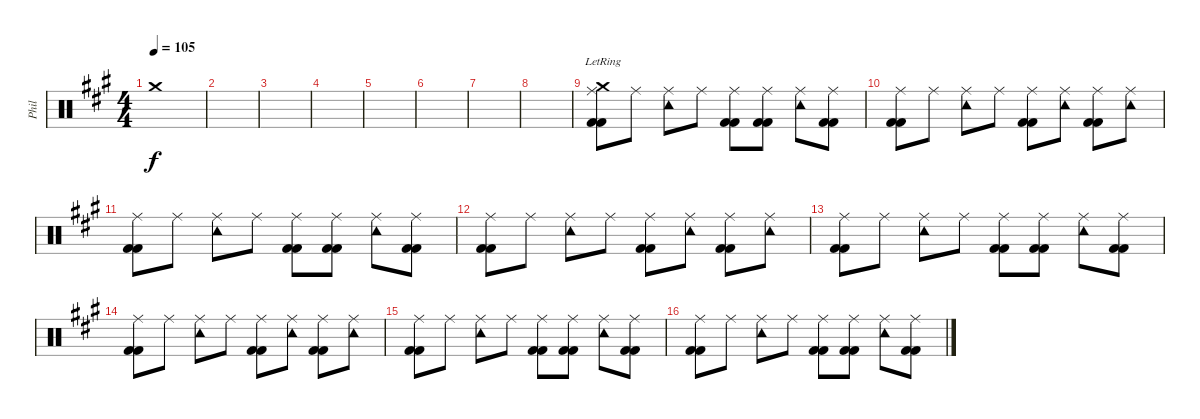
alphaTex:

\track ("Phil" "Phil") {instrument percussion}
\staff {score}
\articulation defaults
\ts (4 4)
\tempo 105
\clef neutral
\ks a "Crash medium (hit)".1{dy f}
|
|
|
|
|
|
|
|
("Kick (hit) 2" "Ride (middle)" "Kick (hit) 2" "Crash medium (hit)"{lr}).8 "Ride (middle)".8 ("Ride (middle)" "Tambourine (hit)").8 "Ride (middle)".8 ("Kick (hit) 2" "Ride (middle)" "Kick (hit) 2").8 ("Kick (hit) 2" "Ride (middle)" "Kick (hit) 2").8 ("Ride (middle)" "Tambourine (hit)").8 ("Kick (hit) 2" "Ride (middle)" "Kick (hit) 2").8 |
("Kick (hit) 2" "Ride (middle)" "Kick (hit) 2").8 "Ride (middle)".8 ("Ride (middle)" "Tambourine (hit)").8 "Ride (middle)".8 ("Kick (hit) 2" "Ride (middle)" "Kick (hit) 2").8 ("Ride (middle)" "Tambourine (hit)").8 ("Kick (hit) 2" "Ride (middle)" "Kick (hit) 2").8 ("Ride (middle)" "Tambourine (hit)").8 |
("Kick (hit) 2" "Ride (middle)" "Kick (hit) 2").8 "Ride (middle)".8 ("Ride (middle)" "Tambourine (hit)").8 "Ride (middle)".8 ("Kick (hit) 2" "Ride (middle)" "Kick (hit) 2").8 ("Kick (hit) 2" "Ride (middle)" "Kick (hit) 2").8 ("Ride (middle)" "Tambourine (hit)").8 ("Kick (hit) 2" "Ride (middle)" "Kick (hit) 2").8 |
("Kick (hit) 2" "Ride (middle)" "Kick (hit) 2").8 "Ride (middle)".8 ("Ride (middle)" "Tambourine (hit)").8 "Ride (middle)".8 ("Kick (hit) 2" "Ride (middle)" "Kick (hit) 2").8 ("Ride (middle)" "Tambourine (hit)").8 ("Kick (hit) 2" "Ride (middle)" "Kick (hit) 2").8 ("Ride (middle)" "Tambourine (hit)").8 |
("Kick (hit) 2" "Ride (middle)" "Kick (hit) 2").8 "Ride (middle)".8 ("Ride (middle)" "Tambourine (hit)").8 "Ride (middle)".8 ("Kick (hit) 2" "Ride (middle)" "Kick (hit) 2").8 ("Kick (hit) 2" "Ride (middle)" "Kick (hit) 2").8 ("Ride (middle)" "Tambourine (hit)").8 ("Kick (hit) 2" "Ride (middle)" "Kick (hit) 2").8 |
("Kick (hit) 2" "Ride (middle)" "Kick (hit) 2").8 "Ride (middle)".8 ("Ride (middle)" "Tambourine (hit)").8 "Ride (middle)".8 ("Kick (hit) 2" "Ride (middle)" "Kick (hit) 2").8 ("Ride (middle)" "Tambourine (hit)").8 ("Kick (hit) 2" "Ride (middle)" "Kick (hit) 2").8 ("Ride (middle)" "Tambourine (hit)").8 |
("Kick (hit) 2" "Ride (middle)" "Kick (hit) 2").8 "Ride (middle)".8 ("Ride (middle)" "Tambourine (hit)").8 "Ride (middle)".8 ("Kick (hit) 2" "Ride (middle)" "Kick (hit) 2").8 ("Kick (hit) 2" "Ride (middle)" "Kick (hit) 2").8 ("Ride (middle)" "Tambourine (hit)").8 ("Kick (hit) 2" "Ride (middle)" "Kick (hit) 2").8 |
("Kick (hit) 2" "Ride (middle)" "Kick (hit) 2").8 "Ride (middle)".8 ("Ride (middle)" "Tambourine (hit)").8 "Ride (middle)".8 ("Kick (hit) 2" "Ride (middle)" "Kick (hit) 2").8 ("Kick (hit) 2" "Ride (middle)" "Kick (hit) 2").8 ("Ride (middle)" "Tambourine (hit)").8 ("Kick (hit) 2" "Ride (middle)" "Kick (hit) 2").8
